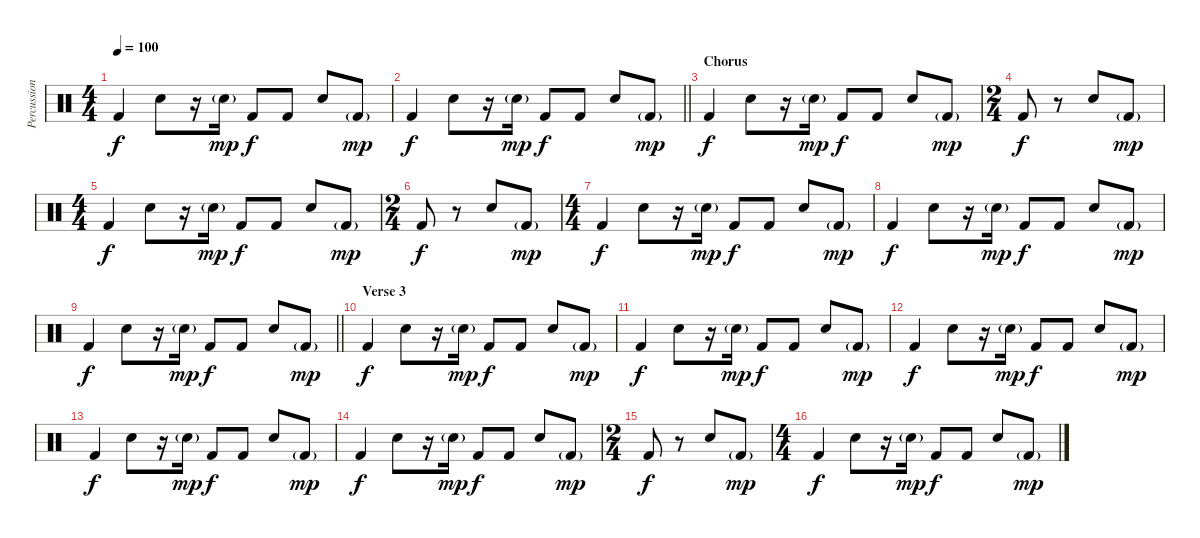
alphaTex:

\track ("Percussion" "Percussion") {instrument percussion}
\staff {score}
\articulation defaults
\ts (4 4)
\tempo 100
\clef neutral
\ks c "Kick (hit) 2".4{dy f} "Snare (hit) 2".8
r.16 "Snare (hit) 2"{g}.16{dy mp} "Kick (hit) 2".8{dy f} "Kick (hit) 2".8 "Snare (hit) 2".8 "Kick (hit) 2"{g}.8{dy mp} |
\barLineRight lightlight "Kick (hit) 2".4{dy f} "Snare (hit) 2".8
r.16 "Snare (hit) 2"{g}.16{dy mp} "Kick (hit) 2".8{dy f} "Kick (hit) 2".8 "Snare (hit) 2".8 "Kick (hit) 2"{g}.8{dy mp} |
\section ("" "Chorus")
"Kick (hit) 2".4{dy f} "Snare (hit) 2".8 r.16 "Snare (hit) 2"{g}.16{dy mp} "Kick (hit) 2".8{dy f} "Kick (hit) 2".8 "Snare (hit) 2".8 "Kick (hit) 2"{g}.8{dy mp} |
\ts (2 4)
"Kick (hit) 2".8{dy f} r.8 "Snare (hit) 2".8 "Kick (hit) 2"{g}.8{dy mp} |
\ts (4 4)
"Kick (hit) 2".4{dy f} "Snare (hit) 2".8 r.16 "Snare (hit) 2"{g}.16{dy mp} "Kick (hit) 2".8{dy f} "Kick (hit) 2".8 "Snare (hit) 2".8 "Kick (hit) 2"{g}.8{dy mp} |
\ts (2 4)
"Kick (hit) 2".8{dy f} r.8 "Snare (hit) 2".8 "Kick (hit) 2"{g}.8{dy mp} |
\ts (4 4)
"Kick (hit) 2".4{dy f} "Snare (hit) 2".8 r.16 "Snare (hit) 2"{g}.16{dy mp} "Kick (hit) 2".8{dy f} "Kick (hit) 2".8 "Snare (hit) 2".8 "Kick (hit) 2"{g}.8{dy mp} |
"Kick (hit) 2".4{dy f} "Snare (hit) 2".8 r.16 "Snare (hit) 2"{g}.16{dy mp} "Kick (hit) 2".8{dy f} "Kick (hit) 2".8 "Snare (hit) 2".8 "Kick (hit) 2"{g}.8{dy mp} |
\barLineRight lightlight "Kick (hit) 2".4{dy f} "Snare (hit) 2".8
r.16 "Snare (hit) 2"{g}.16{dy mp} "Kick (hit) 2".8{dy f} "Kick (hit) 2".8 "Snare (hit) 2".8 "Kick (hit) 2"{g}.8{dy mp} |
\section ("" "Verse 3")
"Kick (hit) 2".4{dy f} "Snare (hit) 2".8 r.16 "Snare (hit) 2"{g}.16{dy mp} "Kick (hit) 2".8{dy f} "Kick (hit) 2".8 "Snare (hit) 2".8 "Kick (hit) 2"{g}.8{dy mp} |
"Kick (hit) 2".4{dy f} "Snare (hit) 2".8 r.16 "Snare (hit) 2"{g}.16{dy mp} "Kick (hit) 2".8{dy f} "Kick (hit) 2".8 "Snare (hit) 2".8 "Kick (hit) 2"{g}.8{dy mp} |
"Kick (hit) 2".4{dy f} "Snare (hit) 2".8 r.16 "Snare (hit) 2"{g}.16{dy mp} "Kick (hit) 2".8{dy f} "Kick (hit) 2".8 "Snare (hit) 2".8 "Kick (hit) 2"{g}.8{dy mp} |
"Kick (hit) 2".4{dy f} "Snare (hit) 2".8 r.16 "Snare (hit) 2"{g}.16{dy mp} "Kick (hit) 2".8{dy f} "Kick (hit) 2".8 "Snare (hit) 2".8 "Kick (hit) 2"{g}.8{dy mp} |
"Kick (hit) 2".4{dy f} "Snare (hit) 2".8 r.16 "Snare (hit) 2"{g}.16{dy mp} "Kick (hit) 2".8{dy f} "Kick (hit) 2".8 "Snare (hit) 2".8 "Kick (hit) 2"{g}.8{dy mp} |
\ts (2 4)
"Kick (hit) 2".8{dy f} r.8 "Snare (hit) 2".8 "Kick (hit) 2"{g}.8{dy mp} |
\ts (4 4)
"Kick (hit) 2".4{dy f} "Snare (hit) 2".8 r.16 "Snare (hit) 2"{g}.16{dy mp} "Kick (hit) 2".8{dy f} "Kick (hit) 2".8 "Snare (hit) 2".8 "Kick (hit) 2"{g}.8{dy mp}
